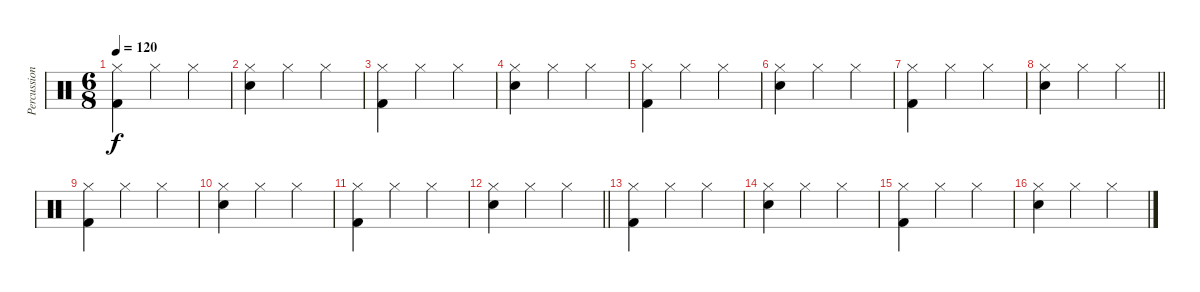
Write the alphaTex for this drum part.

\track ("Percussion" "Percussion") {instrument percussion}
\staff {score}
\articulation defaults
\ts (6 8)
\section ("" "")
\tempo 120
\clef neutral
\ks c
("Hi-Hat (closed)" "Kick (hit) 2").4{dy f} "Hi-Hat (closed)".4 "Hi-Hat (closed)".4 |
("Hi-Hat (closed)" "Snare (hit) 2").4 "Hi-Hat (closed)".4 "Hi-Hat (closed)".4 |
("Hi-Hat (closed)" "Kick (hit) 2").4 "Hi-Hat (closed)".4 "Hi-Hat (closed)".4 |
("Hi-Hat (closed)" "Snare (hit) 2").4 "Hi-Hat (closed)".4 "Hi-Hat (closed)".4 |
("Hi-Hat (closed)" "Kick (hit) 2").4 "Hi-Hat (closed)".4 "Hi-Hat (closed)".4 |
("Hi-Hat (closed)" "Snare (hit) 2").4 "Hi-Hat (closed)".4 "Hi-Hat (closed)".4 |
("Hi-Hat (closed)" "Kick (hit) 2").4 "Hi-Hat (closed)".4 "Hi-Hat (closed)".4 |
\barLineRight lightlight
("Hi-Hat (closed)" "Snare (hit) 2").4 "Hi-Hat (closed)".4 "Hi-Hat (closed)".4 |
\section ("" "")
("Hi-Hat (closed)" "Kick (hit) 2").4 "Hi-Hat (closed)".4 "Hi-Hat (closed)".4 |
("Hi-Hat (closed)" "Snare (hit) 2").4 "Hi-Hat (closed)".4 "Hi-Hat (closed)".4 |
("Hi-Hat (closed)" "Kick (hit) 2").4 "Hi-Hat (closed)".4 "Hi-Hat (closed)".4 |
\barLineRight lightlight
("Hi-Hat (closed)" "Snare (hit) 2").4 "Hi-Hat (closed)".4 "Hi-Hat (closed)".4 |
\section ("" "")
("Hi-Hat (closed)" "Kick (hit) 2").4 "Hi-Hat (closed)".4 "Hi-Hat (closed)".4 |
("Hi-Hat (closed)" "Snare (hit) 2").4 "Hi-Hat (closed)".4 "Hi-Hat (closed)".4 |
("Hi-Hat (closed)" "Kick (hit) 2").4 "Hi-Hat (closed)".4 "Hi-Hat (closed)".4 |
("Hi-Hat (closed)" "Snare (hit) 2").4 "Hi-Hat (closed)".4 "Hi-Hat (closed)".4
